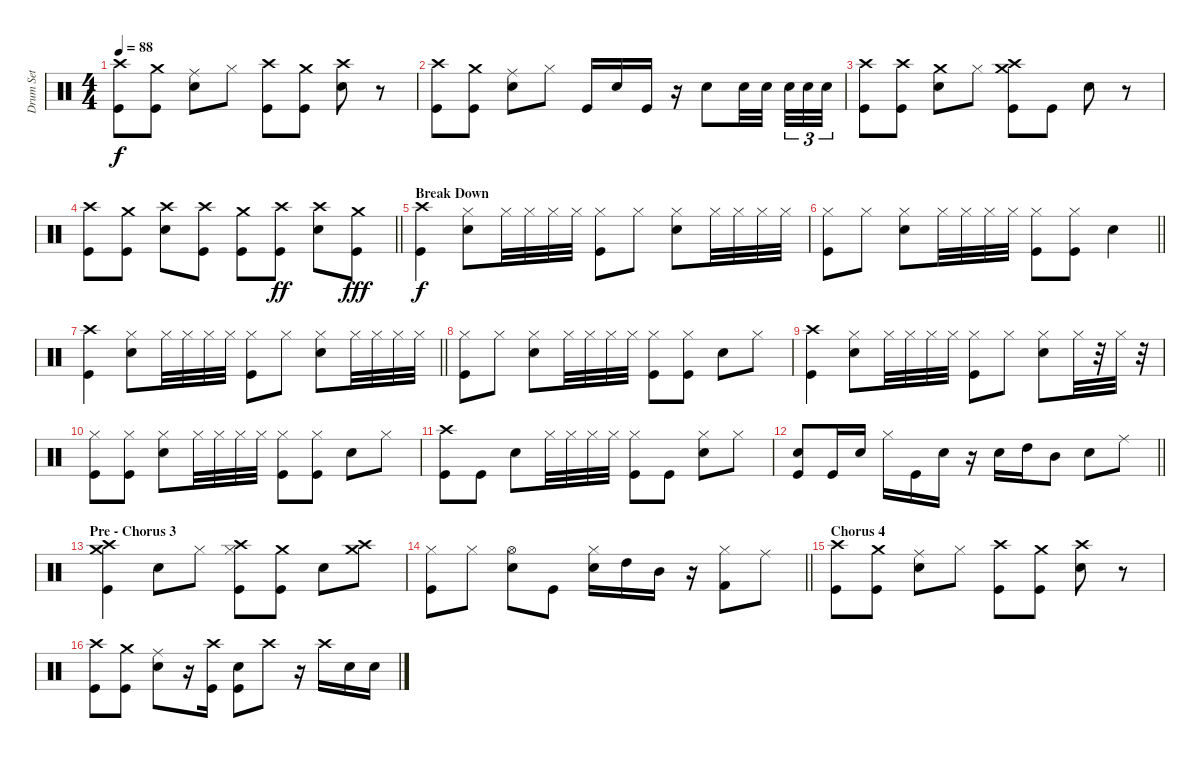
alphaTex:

\track ("Drum Set" "Drum Set") {instrument percussion}
\staff {score}
\articulation defaults
\ts (4 4)
\tempo 88
\clef neutral
\ks c
("Crash high (hit)" "Kick (hit)").8{dy f} ("Crash medium (hit)" "Kick (hit)").8 ("Ride (middle)" "Snare (hit) 2").8 "Hi-Hat (closed)".8 ("Crash high (hit)" "Kick (hit)").8 ("Crash medium (hit)" "Kick (hit)").8 ("Crash high (hit)" "Snare (hit) 2").8 r.8 |
("Crash high (hit)" "Kick (hit)").8 ("Crash medium (hit)" "Kick (hit)").8 ("Ride (middle)" "Snare (hit) 2").8 "Hi-Hat (closed)".8 "Kick (hit)".16 "Snare (hit) 2".16 "Kick (hit)".16 r.16 "Snare (hit) 2".8 "Snare (hit) 2".32 "Snare (hit) 2".32{beam splitsecondary} "Snare (hit) 2".32{tu (3 2)} "Snare (hit) 2".32{tu (3 2)} "Snare (hit) 2".32{tu (3 2)} |
("Crash high (hit)" "Kick (hit)").8 ("Crash high (hit)" "Kick (hit)").8 ("Crash medium (hit)" "Snare (hit) 2").8 "Hi-Hat (closed)".8 ("Crash high (hit)" "Crash medium (hit)" "Kick (hit)").8 "Kick (hit)".8 "Snare (hit) 2".8 r.8 |
\barLineRight lightlight
("Crash high (hit)" "Kick (hit)").8 ("Crash medium (hit)" "Kick (hit)").8 ("Crash high (hit)" "Snare (hit) 2").8 ("Crash high (hit)" "Kick (hit)").8 ("Crash medium (hit)" "Kick (hit)").8 ("Crash high (hit)" "Kick (hit)").8{dy ff} ("Crash high (hit)" "Snare (hit) 2").8 ("Crash medium (hit)" "Kick (hit)").8{dy fff} |
\section ("" "Break Down")
("Crash high (hit)" "Kick (hit)").4{dy f} ("Hi-Hat (closed)" "Snare (hit) 2").8 "Hi-Hat (closed)".32 "Hi-Hat (closed)".32 "Hi-Hat (closed)".32 "Hi-Hat (closed)".32 ("Hi-Hat (closed)" "Kick (hit)").8 "Hi-Hat (closed)".8 ("Hi-Hat (closed)" "Snare (hit) 2").8 "Hi-Hat (closed)".32 "Hi-Hat (closed)".32 "Hi-Hat (closed)".32 "Hi-Hat (closed)".32 |
\barLineRight lightlight
("Hi-Hat (closed)" "Kick (hit)").8 "Hi-Hat (closed)".8 ("Hi-Hat (closed)" "Snare (hit) 2").8 "Hi-Hat (closed)".32 "Hi-Hat (closed)".32 "Hi-Hat (closed)".32 "Hi-Hat (closed)".32 ("Hi-Hat (closed)" "Kick (hit)").8 ("Hi-Hat (closed)" "Kick (hit)").8 "Snare (hit) 2".4 |
\barLineRight lightlight
("Crash high (hit)" "Kick (hit)").4 ("Hi-Hat (closed)" "Snare (hit) 2").8 "Hi-Hat (closed)".32 "Hi-Hat (closed)".32 "Hi-Hat (closed)".32 "Hi-Hat (closed)".32 ("Hi-Hat (closed)" "Kick (hit)").8 "Hi-Hat (closed)".8 ("Hi-Hat (closed)" "Snare (hit) 2").8 "Hi-Hat (closed)".32 "Hi-Hat (closed)".32 "Hi-Hat (closed)".32 "Hi-Hat (closed)".32 |
("Hi-Hat (closed)" "Kick (hit)").8 "Hi-Hat (closed)".8 ("Hi-Hat (closed)" "Snare (hit) 2").8 "Hi-Hat (closed)".32 "Hi-Hat (closed)".32 "Hi-Hat (closed)".32 "Hi-Hat (closed)".32 ("Hi-Hat (closed)" "Kick (hit)").8 ("Hi-Hat (closed)" "Kick (hit)").8 "Snare (hit) 2".8 "Hi-Hat (closed)".8 |
("Crash high (hit)" "Kick (hit)").4 ("Hi-Hat (closed)" "Snare (hit) 2").8 "Hi-Hat (closed)".32 "Hi-Hat (closed)".32 "Hi-Hat (closed)".32 "Hi-Hat (closed)".32 ("Hi-Hat (closed)" "Kick (hit)").8 "Hi-Hat (closed)".8 ("Hi-Hat (closed)" "Snare (hit) 2").8 "Hi-Hat (closed)".32 r.32 "Hi-Hat (closed)".32 r.32 |
("Hi-Hat (closed)" "Kick (hit)").8 ("Hi-Hat (closed)" "Kick (hit)").8 ("Hi-Hat (closed)" "Snare (hit) 2").8 "Hi-Hat (closed)".32 "Hi-Hat (closed)".32 "Hi-Hat (closed)".32 "Hi-Hat (closed)".32 ("Hi-Hat (closed)" "Kick (hit)").8 ("Hi-Hat (closed)" "Kick (hit)").8 "Snare (hit) 2".8 "Hi-Hat (closed)".8 |
("Crash high (hit)" "Kick (hit)").8 "Kick (hit)".8 "Snare (hit) 2".8 "Hi-Hat (closed)".32 "Hi-Hat (closed)".32 "Hi-Hat (closed)".32 "Hi-Hat (closed)".32 ("Hi-Hat (closed)" "Kick (hit)").8 "Kick (hit)".8 ("Hi-Hat (closed)" "Snare (hit) 2").8 "Hi-Hat (closed)".8 |
\barLineRight lightlight
("Snare (hit) 2" "Kick (hit)").8 "Kick (hit)".16 "Snare (hit) 2".16 "Hi-Hat (closed)".16 "Kick (hit)".16 "Snare (hit) 2".16 r.16 "Snare (hit) 2".16 "High Tom (hit)".16 "Mid Tom (hit)".8 "Snare (hit) 2".8 "Ride (middle)".8 |
\section ("" "Pre - Chorus 3")
("Crash high (hit)" "Crash medium (hit)" "Kick (hit)").4 "Snare (hit) 2".8 "Hi-Hat (closed)".8 ("Crash high (hit)" "Hi-Hat (closed)" "Kick (hit)").8 ("Crash medium (hit)" "Kick (hit)").8 "Snare (hit) 2".8 ("Crash high (hit)" "Crash medium (hit)").8 |
\barLineRight lightlight
("Hi-Hat (closed)" "Kick (hit)").8 "Hi-Hat (closed)".8 ("Hi-Hat (open)" "Snare (hit) 2").8 "Kick (hit)".8 ("Hi-Hat (closed)" "Snare (hit) 2").16 "High Tom (hit)".16 "Mid Tom (hit)".16 r.16 ("Hi-Hat (closed)" "Kick (hit) 2").8 "Ride (middle)".8 |
\section ("" "Chorus 4")
("Crash high (hit)" "Kick (hit)").8 ("Crash medium (hit)" "Kick (hit)").8 ("Ride (middle)" "Snare (hit) 2").8 "Hi-Hat (closed)".8 ("Crash high (hit)" "Kick (hit)").8 ("Crash medium (hit)" "Kick (hit)").8 ("Crash high (hit)" "Snare (hit) 2").8 r.8 |
("Crash high (hit)" "Kick (hit)").8 ("Crash medium (hit)" "Kick (hit)").8 ("Ride (middle)" "Snare (hit) 2").8 r.16 ("Crash high (hit)" "Kick (hit)").16 ("Snare (hit) 2" "Kick (hit)").8 "Crash high (hit)".8 r.16 "Crash high (hit)".16 "Snare (hit) 2".16 "Snare (hit) 2".16
